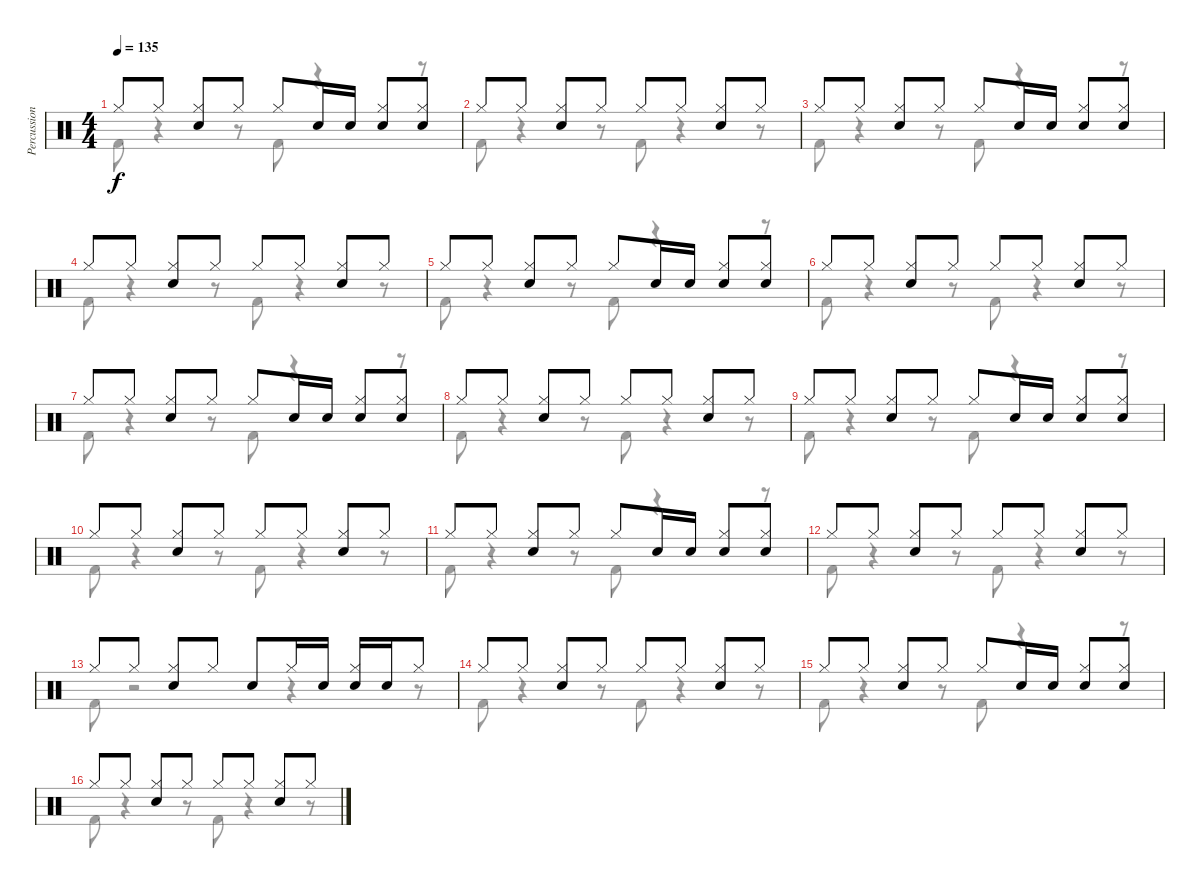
\track ("Percussion" "Percussion") {instrument percussion}
\staff {score}
\articulation defaults
\voice
\ts (4 4)
\tempo 135
\clef neutral
\ks c "Hi-Hat (closed)".8{dy f} "Hi-Hat (closed)".8
("Hi-Hat (closed)" "Snare (hit) 2").8 "Hi-Hat (closed)".8 "Hi-Hat (closed)".8 "Snare (hit) 2".16 "Snare (hit) 2".16 ("Hi-Hat (closed)" "Snare (hit) 2").8 ("Hi-Hat (closed)" "Snare (hit) 2").8 |
"Hi-Hat (closed)".8 "Hi-Hat (closed)".8 ("Hi-Hat (closed)" "Snare (hit) 2").8 "Hi-Hat (closed)".8 "Hi-Hat (closed)".8 "Hi-Hat (closed)".8 ("Hi-Hat (closed)" "Snare (hit) 2").8 "Hi-Hat (closed)".8 |
"Hi-Hat (closed)".8 "Hi-Hat (closed)".8 ("Hi-Hat (closed)" "Snare (hit) 2").8 "Hi-Hat (closed)".8 "Hi-Hat (closed)".8 "Snare (hit) 2".16 "Snare (hit) 2".16 ("Hi-Hat (closed)" "Snare (hit) 2").8 ("Hi-Hat (closed)" "Snare (hit) 2").8 |
"Hi-Hat (closed)".8 "Hi-Hat (closed)".8 ("Hi-Hat (closed)" "Snare (hit) 2").8 "Hi-Hat (closed)".8 "Hi-Hat (closed)".8 "Hi-Hat (closed)".8 ("Hi-Hat (closed)" "Snare (hit) 2").8 "Hi-Hat (closed)".8 |
"Hi-Hat (closed)".8 "Hi-Hat (closed)".8 ("Hi-Hat (closed)" "Snare (hit) 2").8 "Hi-Hat (closed)".8 "Hi-Hat (closed)".8 "Snare (hit) 2".16 "Snare (hit) 2".16 ("Hi-Hat (closed)" "Snare (hit) 2").8 ("Hi-Hat (closed)" "Snare (hit) 2").8 |
"Hi-Hat (closed)".8 "Hi-Hat (closed)".8 ("Hi-Hat (closed)" "Snare (hit) 2").8 "Hi-Hat (closed)".8 "Hi-Hat (closed)".8 "Hi-Hat (closed)".8 ("Hi-Hat (closed)" "Snare (hit) 2").8 "Hi-Hat (closed)".8 |
"Hi-Hat (closed)".8 "Hi-Hat (closed)".8 ("Hi-Hat (closed)" "Snare (hit) 2").8 "Hi-Hat (closed)".8 "Hi-Hat (closed)".8 "Snare (hit) 2".16 "Snare (hit) 2".16 ("Hi-Hat (closed)" "Snare (hit) 2").8 ("Hi-Hat (closed)" "Snare (hit) 2").8 |
"Hi-Hat (closed)".8 "Hi-Hat (closed)".8 ("Hi-Hat (closed)" "Snare (hit) 2").8 "Hi-Hat (closed)".8 "Hi-Hat (closed)".8 "Hi-Hat (closed)".8 ("Hi-Hat (closed)" "Snare (hit) 2").8 "Hi-Hat (closed)".8 |
"Hi-Hat (closed)".8 "Hi-Hat (closed)".8 ("Hi-Hat (closed)" "Snare (hit) 2").8 "Hi-Hat (closed)".8 "Hi-Hat (closed)".8 "Snare (hit) 2".16 "Snare (hit) 2".16 ("Hi-Hat (closed)" "Snare (hit) 2").8 ("Hi-Hat (closed)" "Snare (hit) 2").8 |
"Hi-Hat (closed)".8 "Hi-Hat (closed)".8 ("Hi-Hat (closed)" "Snare (hit) 2").8 "Hi-Hat (closed)".8 "Hi-Hat (closed)".8 "Hi-Hat (closed)".8 ("Hi-Hat (closed)" "Snare (hit) 2").8 "Hi-Hat (closed)".8 |
"Hi-Hat (closed)".8 "Hi-Hat (closed)".8 ("Hi-Hat (closed)" "Snare (hit) 2").8 "Hi-Hat (closed)".8 "Hi-Hat (closed)".8 "Snare (hit) 2".16 "Snare (hit) 2".16 ("Hi-Hat (closed)" "Snare (hit) 2").8 ("Hi-Hat (closed)" "Snare (hit) 2").8 |
"Hi-Hat (closed)".8 "Hi-Hat (closed)".8 ("Hi-Hat (closed)" "Snare (hit) 2").8 "Hi-Hat (closed)".8 "Hi-Hat (closed)".8 "Hi-Hat (closed)".8 ("Hi-Hat (closed)" "Snare (hit) 2").8 "Hi-Hat (closed)".8 |
"Hi-Hat (closed)".8 "Hi-Hat (closed)".8 ("Hi-Hat (closed)" "Snare (hit) 2").8 "Hi-Hat (closed)".8 "Snare (hit) 2".8 "Hi-Hat (closed)".16 "Snare (hit) 2".16 ("Hi-Hat (closed)" "Snare (hit) 2").16 "Snare (hit) 2".16 "Hi-Hat (closed)".8 |
"Hi-Hat (closed)".8 "Hi-Hat (closed)".8 ("Hi-Hat (closed)" "Snare (hit) 2").8 "Hi-Hat (closed)".8 "Hi-Hat (closed)".8 "Hi-Hat (closed)".8 ("Hi-Hat (closed)" "Snare (hit) 2").8 "Hi-Hat (closed)".8 |
"Hi-Hat (closed)".8 "Hi-Hat (closed)".8 ("Hi-Hat (closed)" "Snare (hit) 2").8 "Hi-Hat (closed)".8 "Hi-Hat (closed)".8 "Snare (hit) 2".16 "Snare (hit) 2".16 ("Hi-Hat (closed)" "Snare (hit) 2").8 ("Hi-Hat (closed)" "Snare (hit) 2").8 |
"Hi-Hat (closed)".8 "Hi-Hat (closed)".8 ("Hi-Hat (closed)" "Snare (hit) 2").8 "Hi-Hat (closed)".8 "Hi-Hat (closed)".8 "Hi-Hat (closed)".8 ("Hi-Hat (closed)" "Snare (hit) 2").8 "Hi-Hat (closed)".8
\voice
\clef neutral
\ottava regular
\simile none
\ks c "Kick (hit) 2".8{dy f}
r.4 r.8 "Kick (hit) 2".8 r.4 r.8 |
"Kick (hit) 2".8 r.4 r.8 "Kick (hit) 2".8 r.4 r.8 |
"Kick (hit) 2".8 r.4 r.8 "Kick (hit) 2".8 r.4 r.8 |
"Kick (hit) 2".8 r.4 r.8 "Kick (hit) 2".8 r.4 r.8 |
"Kick (hit) 2".8 r.4 r.8 "Kick (hit) 2".8 r.4 r.8 |
"Kick (hit) 2".8 r.4 r.8 "Kick (hit) 2".8 r.4 r.8 |
"Kick (hit) 2".8 r.4 r.8 "Kick (hit) 2".8 r.4 r.8 |
"Kick (hit) 2".8 r.4 r.8 "Kick (hit) 2".8 r.4 r.8 |
"Kick (hit) 2".8 r.4 r.8 "Kick (hit) 2".8 r.4 r.8 |
"Kick (hit) 2".8 r.4 r.8 "Kick (hit) 2".8 r.4 r.8 |
"Kick (hit) 2".8 r.4 r.8 "Kick (hit) 2".8 r.4 r.8 |
"Kick (hit) 2".8 r.4 r.8 "Kick (hit) 2".8 r.4 r.8 |
"Kick (hit) 2".8 r.2 r.4 r.8 |
"Kick (hit) 2".8 r.4 r.8 "Kick (hit) 2".8 r.4 r.8 |
"Kick (hit) 2".8 r.4 r.8 "Kick (hit) 2".8 r.4 r.8 |
"Kick (hit) 2".8 r.4 r.8 "Kick (hit) 2".8 r.4 r.8
